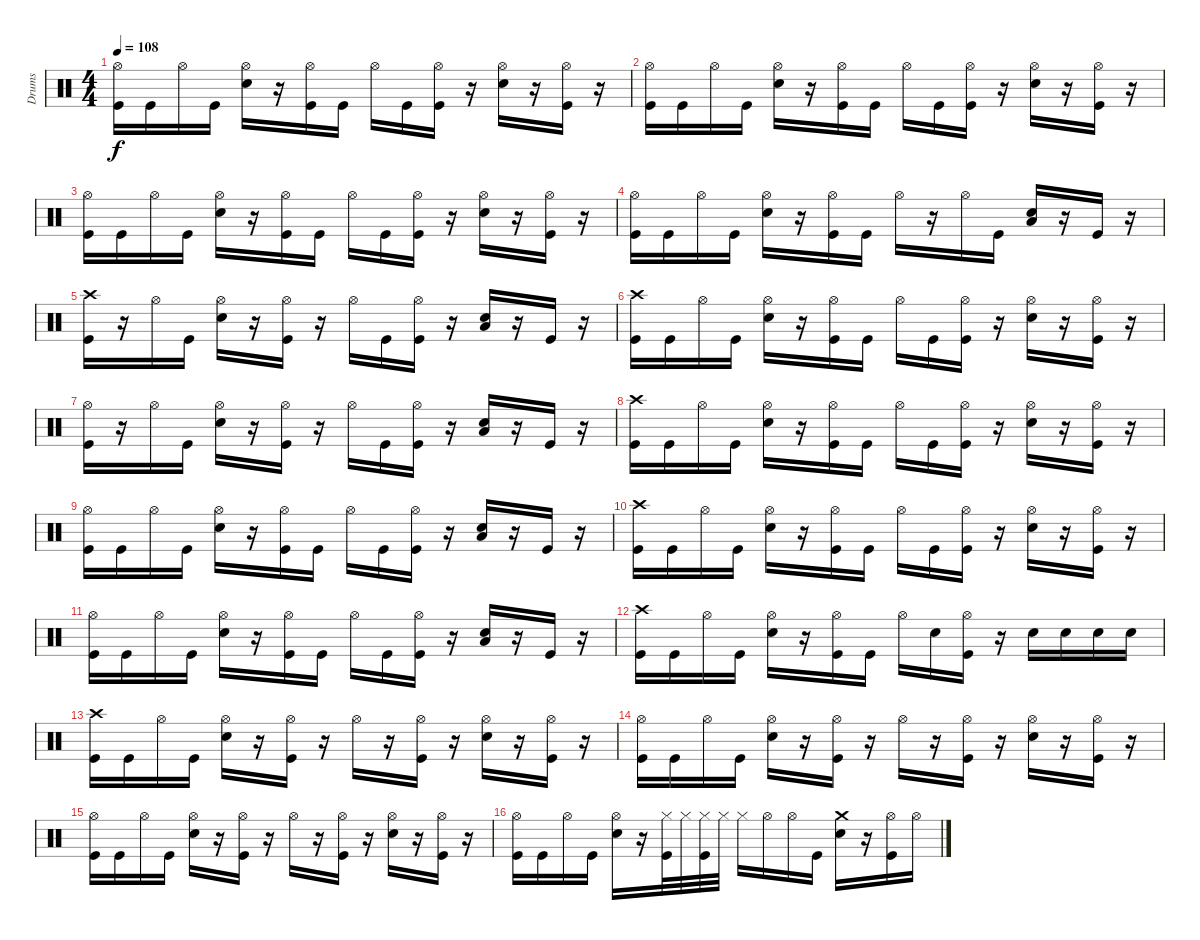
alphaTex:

\track ("Drums" "Drums") {instrument percussion}
\staff {score}
\articulation defaults
\ts (4 4)
\tempo 108
\clef neutral
\ks c
("Hi-Hat (open)" "Kick (hit)").16{dy f} "Kick (hit)".16 "Hi-Hat (open)".16 "Kick (hit)".16 ("Hi-Hat (open)" "Electric Snare (hit)").16 r.16 ("Hi-Hat (open)" "Kick (hit)").16 "Kick (hit)".16 "Hi-Hat (open)".16 "Kick (hit)".16 ("Hi-Hat (open)" "Kick (hit)").16 r.16 ("Hi-Hat (open)" "Electric Snare (hit)").16 r.16 ("Hi-Hat (open)" "Kick (hit)").16 r.16 |
("Hi-Hat (open)" "Kick (hit)").16 "Kick (hit)".16 "Hi-Hat (open)".16 "Kick (hit)".16 ("Hi-Hat (open)" "Electric Snare (hit)").16 r.16 ("Hi-Hat (open)" "Kick (hit)").16 "Kick (hit)".16 "Hi-Hat (open)".16 "Kick (hit)".16 ("Hi-Hat (open)" "Kick (hit)").16 r.16 ("Hi-Hat (open)" "Electric Snare (hit)").16 r.16 ("Hi-Hat (open)" "Kick (hit)").16 r.16 |
("Hi-Hat (open)" "Kick (hit)").16 "Kick (hit)".16 "Hi-Hat (open)".16 "Kick (hit)".16 ("Hi-Hat (open)" "Electric Snare (hit)").16 r.16 ("Hi-Hat (open)" "Kick (hit)").16 "Kick (hit)".16 "Hi-Hat (open)".16 "Kick (hit)".16 ("Hi-Hat (open)" "Kick (hit)").16 r.16 ("Hi-Hat (open)" "Electric Snare (hit)").16 r.16 ("Hi-Hat (open)" "Kick (hit)").16 r.16 |
("Hi-Hat (open)" "Kick (hit)").16 "Kick (hit)".16 "Hi-Hat (open)".16 "Kick (hit)".16 ("Hi-Hat (open)" "Electric Snare (hit)").16 r.16 ("Hi-Hat (open)" "Kick (hit)").16 "Kick (hit)".16 "Hi-Hat (open)".16 r.16 "Hi-Hat (open)".16 "Kick (hit)".16 ("Low Floor Tom (hit)" "Electric Snare (hit)").16 r.16 "Kick (hit)".16 r.16 |
("Crash high (hit)" "Kick (hit)").16 r.16 "Hi-Hat (open)".16 "Kick (hit)".16 ("Hi-Hat (open)" "Electric Snare (hit)").16 r.16 ("Hi-Hat (open)" "Kick (hit)").16 r.16 "Hi-Hat (open)".16 "Kick (hit)".16 ("Hi-Hat (open)" "Kick (hit)").16 r.16 ("Low Floor Tom (hit)" "Electric Snare (hit)").16 r.16 "Kick (hit)".16 r.16 |
("Crash high (hit)" "Kick (hit)").16 "Kick (hit)".16 "Hi-Hat (open)".16 "Kick (hit)".16 ("Hi-Hat (open)" "Electric Snare (hit)").16 r.16 ("Hi-Hat (open)" "Kick (hit)").16 "Kick (hit)".16 "Hi-Hat (open)".16 "Kick (hit)".16 ("Hi-Hat (open)" "Kick (hit)").16 r.16 ("Hi-Hat (open)" "Electric Snare (hit)").16 r.16 ("Hi-Hat (open)" "Kick (hit)").16 r.16 |
("Hi-Hat (open)" "Kick (hit)").16 r.16 "Hi-Hat (open)".16 "Kick (hit)".16 ("Hi-Hat (open)" "Electric Snare (hit)").16 r.16 ("Hi-Hat (open)" "Kick (hit)").16 r.16 "Hi-Hat (open)".16 "Kick (hit)".16 ("Hi-Hat (open)" "Kick (hit)").16 r.16 ("Low Floor Tom (hit)" "Electric Snare (hit)").16 r.16 "Kick (hit)".16 r.16 |
("Crash high (hit)" "Kick (hit)").16 "Kick (hit)".16 "Hi-Hat (open)".16 "Kick (hit)".16 ("Hi-Hat (open)" "Electric Snare (hit)").16 r.16 ("Hi-Hat (open)" "Kick (hit)").16 "Kick (hit)".16 "Hi-Hat (open)".16 "Kick (hit)".16 ("Hi-Hat (open)" "Kick (hit)").16 r.16 ("Hi-Hat (open)" "Electric Snare (hit)").16 r.16 ("Hi-Hat (open)" "Kick (hit)").16 r.16 |
("Hi-Hat (open)" "Kick (hit)").16 "Kick (hit)".16 "Hi-Hat (open)".16 "Kick (hit)".16 ("Hi-Hat (open)" "Electric Snare (hit)").16 r.16 ("Hi-Hat (open)" "Kick (hit)").16 "Kick (hit)".16 "Hi-Hat (open)".16 "Kick (hit)".16 ("Hi-Hat (open)" "Kick (hit)").16 r.16 ("Low Floor Tom (hit)" "Electric Snare (hit)").16 r.16 "Kick (hit)".16 r.16 |
("Crash high (hit)" "Kick (hit)").16 "Kick (hit)".16 "Hi-Hat (open)".16 "Kick (hit)".16 ("Hi-Hat (open)" "Electric Snare (hit)").16 r.16 ("Hi-Hat (open)" "Kick (hit)").16 "Kick (hit)".16 "Hi-Hat (open)".16 "Kick (hit)".16 ("Hi-Hat (open)" "Kick (hit)").16 r.16 ("Hi-Hat (open)" "Electric Snare (hit)").16 r.16 ("Hi-Hat (open)" "Kick (hit)").16 r.16 |
("Hi-Hat (open)" "Kick (hit)").16 "Kick (hit)".16 "Hi-Hat (open)".16 "Kick (hit)".16 ("Hi-Hat (open)" "Electric Snare (hit)").16 r.16 ("Hi-Hat (open)" "Kick (hit)").16 "Kick (hit)".16 "Hi-Hat (open)".16 "Kick (hit)".16 ("Hi-Hat (open)" "Kick (hit)").16 r.16 ("Low Floor Tom (hit)" "Electric Snare (hit)").16 r.16 "Kick (hit)".16 r.16 |
("Crash high (hit)" "Kick (hit)").16 "Kick (hit)".16 "Hi-Hat (open)".16 "Kick (hit)".16 ("Hi-Hat (open)" "Electric Snare (hit)").16 r.16 ("Hi-Hat (open)" "Kick (hit)").16 "Kick (hit)".16 "Hi-Hat (open)".16 "Electric Snare (hit)".16 ("Hi-Hat (open)" "Kick (hit)").16 r.16 "Electric Snare (hit)".16 "Electric Snare (hit)".16 "Electric Snare (hit)".16 "Electric Snare (hit)".16 |
("Crash high (hit)" "Kick (hit)").16 "Kick (hit)".16 "Hi-Hat (open)".16 "Kick (hit)".16 ("Hi-Hat (open)" "Electric Snare (hit)").16 r.16 ("Hi-Hat (open)" "Kick (hit)").16 r.16 "Hi-Hat (open)".16 r.16 ("Hi-Hat (open)" "Kick (hit)").16 r.16 ("Hi-Hat (open)" "Electric Snare (hit)").16 r.16 ("Hi-Hat (open)" "Kick (hit)").16 r.16 |
("Hi-Hat (open)" "Kick (hit)").16 "Kick (hit)".16 "Hi-Hat (open)".16 "Kick (hit)".16 ("Hi-Hat (open)" "Electric Snare (hit)").16 r.16 ("Hi-Hat (open)" "Kick (hit)").16 r.16 "Hi-Hat (open)".16 r.16 ("Hi-Hat (open)" "Kick (hit)").16 r.16 ("Hi-Hat (open)" "Electric Snare (hit)").16 r.16 ("Hi-Hat (open)" "Kick (hit)").16 r.16 |
("Hi-Hat (open)" "Kick (hit)").16 "Kick (hit)".16 "Hi-Hat (open)".16 "Kick (hit)".16 ("Hi-Hat (open)" "Electric Snare (hit)").16 r.16 ("Hi-Hat (open)" "Kick (hit)").16 r.16 "Hi-Hat (open)".16 r.16 ("Hi-Hat (open)" "Kick (hit)").16 r.16 ("Hi-Hat (open)" "Electric Snare (hit)").16 r.16 ("Hi-Hat (open)" "Kick (hit)").16 r.16 |
("Hi-Hat (open)" "Kick (hit)").16 "Kick (hit)".16 "Hi-Hat (open)".16 "Kick (hit)".16 ("Hi-Hat (open)" "Electric Snare (hit)").16 r.16 ("Hi-Hat (closed)" "Kick (hit)").32 "Hi-Hat (closed)".32 ("Hi-Hat (closed)" "Kick (hit)").32 "Hi-Hat (closed)".32 "Hi-Hat (closed)".16 "Hi-Hat (open)".16 "Hi-Hat (open)".16 "Kick (hit)".16 ("Crash medium (hit)" "Electric Snare (hit)").16 r.16 ("Hi-Hat (open)" "Kick (hit)").16 "Hi-Hat (open)".16
